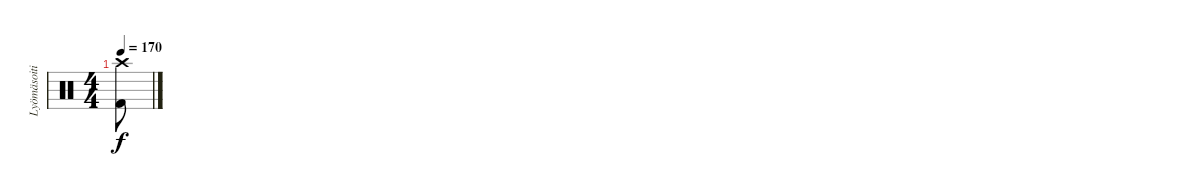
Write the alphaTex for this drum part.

\track ("Lyömäsoitin" "Lyömäsoiti") {instrument percussion}
\staff {score}
\articulation defaults
\ts (4 4)
\tempo 170
\clef neutral
\ks c
("Kick (hit) 2" "Crash high (hit)").8{dy f}
